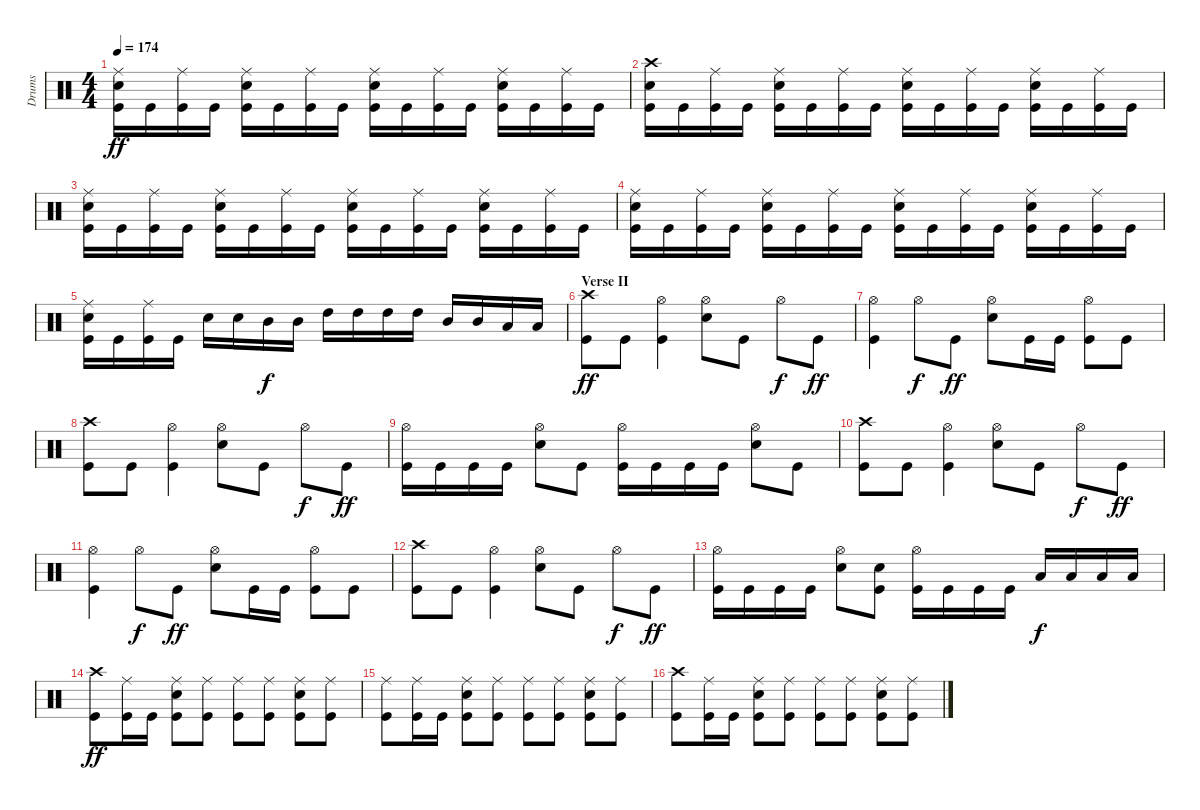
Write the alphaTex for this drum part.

\track ("Drums" "Drums") {instrument percussion}
\staff {score}
\articulation defaults
\ts (4 4)
\tempo 174
\clef neutral
\ks c
("Ride (middle)" "Electric Snare (hit)" "Kick (hit)").16{dy ff} "Kick (hit)".16 ("Ride (middle)" "Kick (hit)").16 "Kick (hit)".16 ("Ride (middle)" "Electric Snare (hit)" "Kick (hit)").16 "Kick (hit)".16 ("Ride (middle)" "Kick (hit)").16 "Kick (hit)".16 ("Ride (middle)" "Electric Snare (hit)" "Kick (hit)").16 "Kick (hit)".16 ("Ride (middle)" "Kick (hit)").16 "Kick (hit)".16 ("Ride (middle)" "Electric Snare (hit)" "Kick (hit)").16 "Kick (hit)".16 ("Ride (middle)" "Kick (hit)").16 "Kick (hit)".16 |
("Crash high (hit)" "Electric Snare (hit)" "Kick (hit)").16 "Kick (hit)".16 ("Ride (middle)" "Kick (hit)").16 "Kick (hit)".16 ("Ride (middle)" "Electric Snare (hit)" "Kick (hit)").16 "Kick (hit)".16 ("Ride (middle)" "Kick (hit)").16 "Kick (hit)".16 ("Ride (middle)" "Electric Snare (hit)" "Kick (hit)").16 "Kick (hit)".16 ("Ride (middle)" "Kick (hit)").16 "Kick (hit)".16 ("Ride (middle)" "Electric Snare (hit)" "Kick (hit)").16 "Kick (hit)".16 ("Ride (middle)" "Kick (hit)").16 "Kick (hit)".16 |
("Ride (middle)" "Electric Snare (hit)" "Kick (hit)").16 "Kick (hit)".16 ("Ride (middle)" "Kick (hit)").16 "Kick (hit)".16 ("Ride (middle)" "Electric Snare (hit)" "Kick (hit)").16 "Kick (hit)".16 ("Ride (middle)" "Kick (hit)").16 "Kick (hit)".16 ("Ride (middle)" "Electric Snare (hit)" "Kick (hit)").16 "Kick (hit)".16 ("Ride (middle)" "Kick (hit)").16 "Kick (hit)".16 ("Ride (middle)" "Electric Snare (hit)" "Kick (hit)").16 "Kick (hit)".16 ("Ride (middle)" "Kick (hit)").16 "Kick (hit)".16 |
("Ride (middle)" "Electric Snare (hit)" "Kick (hit)").16 "Kick (hit)".16 ("Ride (middle)" "Kick (hit)").16 "Kick (hit)".16 ("Ride (middle)" "Electric Snare (hit)" "Kick (hit)").16 "Kick (hit)".16 ("Ride (middle)" "Kick (hit)").16 "Kick (hit)".16 ("Ride (middle)" "Electric Snare (hit)" "Kick (hit)").16 "Kick (hit)".16 ("Ride (middle)" "Kick (hit)").16 "Kick (hit)".16 ("Ride (middle)" "Electric Snare (hit)" "Kick (hit)").16 "Kick (hit)".16 ("Ride (middle)" "Kick (hit)").16 "Kick (hit)".16 |
("Ride (middle)" "Electric Snare (hit)" "Kick (hit)").16 "Kick (hit)".16 ("Ride (middle)" "Kick (hit)").16 "Kick (hit)".16 "Electric Snare (hit)".16 "Electric Snare (hit)".16 "Mid Tom (hit)".16{dy f} "Mid Tom (hit)".16 "High Tom (hit)".16 "High Tom (hit)".16 "High Tom (hit)".16 "High Tom (hit)".16 "Mid Tom (hit)".16 "Mid Tom (hit)".16 "Low Tom (hit)".16 "Low Tom (hit)".16 |
\section ("" "Verse II")
("Crash high (hit)" "Kick (hit)").8{dy ff} "Kick (hit)".8 ("Hi-Hat (open)" "Kick (hit)").4 ("Hi-Hat (open)" "Electric Snare (hit)").8 "Kick (hit)".8 "Hi-Hat (open)".8{dy f} "Kick (hit)".8{dy ff} |
("Hi-Hat (open)" "Kick (hit)").4 "Hi-Hat (open)".8{dy f} "Kick (hit)".8{dy ff} ("Hi-Hat (open)" "Electric Snare (hit)").8 "Kick (hit)".16 "Kick (hit)".16 ("Hi-Hat (open)" "Kick (hit)").8 "Kick (hit)".8 |
("Crash high (hit)" "Kick (hit)").8 "Kick (hit)".8 ("Hi-Hat (open)" "Kick (hit)").4 ("Hi-Hat (open)" "Electric Snare (hit)").8 "Kick (hit)".8 "Hi-Hat (open)".8{dy f} "Kick (hit)".8{dy ff} |
("Hi-Hat (open)" "Kick (hit)").16 "Kick (hit)".16 "Kick (hit)".16 "Kick (hit)".16 ("Hi-Hat (open)" "Electric Snare (hit)").8 "Kick (hit)".8 ("Hi-Hat (open)" "Kick (hit)").16 "Kick (hit)".16 "Kick (hit)".16 "Kick (hit)".16 ("Hi-Hat (open)" "Electric Snare (hit)").8 "Kick (hit)".8 |
("Crash high (hit)" "Kick (hit)").8 "Kick (hit)".8 ("Hi-Hat (open)" "Kick (hit)").4 ("Hi-Hat (open)" "Electric Snare (hit)").8 "Kick (hit)".8 "Hi-Hat (open)".8{dy f} "Kick (hit)".8{dy ff} |
("Hi-Hat (open)" "Kick (hit)").4 "Hi-Hat (open)".8{dy f} "Kick (hit)".8{dy ff} ("Hi-Hat (open)" "Electric Snare (hit)").8 "Kick (hit)".16 "Kick (hit)".16 ("Hi-Hat (open)" "Kick (hit)").8 "Kick (hit)".8 |
("Crash high (hit)" "Kick (hit)").8 "Kick (hit)".8 ("Hi-Hat (open)" "Kick (hit)").4 ("Hi-Hat (open)" "Electric Snare (hit)").8 "Kick (hit)".8 "Hi-Hat (open)".8{dy f} "Kick (hit)".8{dy ff} |
("Hi-Hat (open)" "Kick (hit)").16 "Kick (hit)".16 "Kick (hit)".16 "Kick (hit)".16 ("Hi-Hat (open)" "Electric Snare (hit)").8 ("Electric Snare (hit)" "Kick (hit)").8 ("Hi-Hat (open)" "Kick (hit)").16 "Kick (hit)".16 "Kick (hit)".16 "Kick (hit)".16 "Low Tom (hit)".16{dy f} "Low Tom (hit)".16 "Low Tom (hit)".16 "Low Tom (hit)".16 |
("Crash high (hit)" "Kick (hit)").8{dy ff} ("Ride (middle)" "Kick (hit)").16 "Kick (hit)".16 ("Ride (middle)" "Electric Snare (hit)" "Kick (hit)").8 ("Ride (middle)" "Kick (hit)").8 ("Ride (middle)" "Kick (hit)").8 ("Ride (middle)" "Kick (hit)").8 ("Ride (middle)" "Electric Snare (hit)" "Kick (hit)").8 ("Ride (middle)" "Kick (hit)").8 |
("Ride (middle)" "Kick (hit)").8 ("Ride (middle)" "Kick (hit)").16 "Kick (hit)".16 ("Ride (middle)" "Electric Snare (hit)" "Kick (hit)").8 ("Ride (middle)" "Kick (hit)").8 ("Ride (middle)" "Kick (hit)").8 ("Ride (middle)" "Kick (hit)").8 ("Ride (middle)" "Electric Snare (hit)" "Kick (hit)").8 ("Ride (middle)" "Kick (hit)").8 |
("Crash high (hit)" "Kick (hit)").8 ("Ride (middle)" "Kick (hit)").16 "Kick (hit)".16 ("Ride (middle)" "Electric Snare (hit)" "Kick (hit)").8 ("Ride (middle)" "Kick (hit)").8 ("Ride (middle)" "Kick (hit)").8 ("Ride (middle)" "Kick (hit)").8 ("Ride (middle)" "Electric Snare (hit)" "Kick (hit)").8 ("Ride (middle)" "Kick (hit)").8
